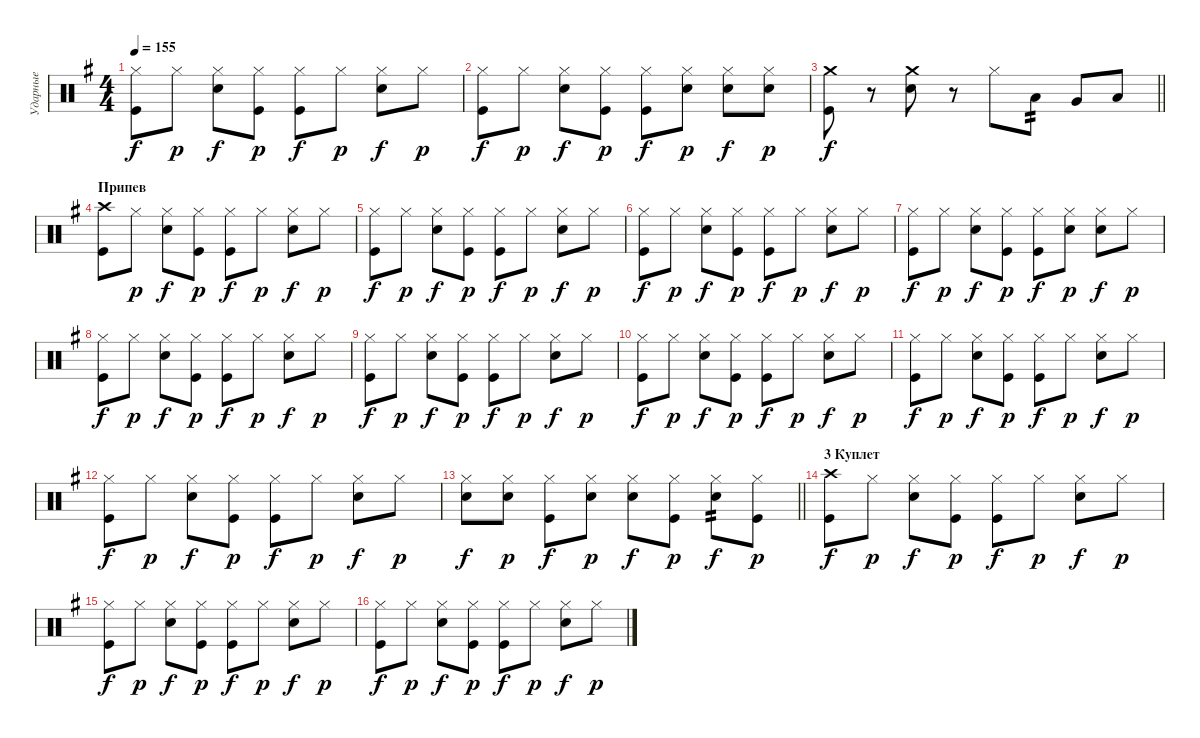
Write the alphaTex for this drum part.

\track ("Ударные" "Ударные") {instrument percussion}
\staff {score}
\articulation defaults
\ts (4 4)
\tempo 155
\clef neutral
\ks eminor
("Hi-Hat (closed)" "Kick (hit)").8{dy f} "Hi-Hat (closed)".8{dy p} ("Hi-Hat (closed)" "Snare (hit) 2").8{dy f} ("Hi-Hat (closed)" "Kick (hit)").8{dy p} ("Hi-Hat (closed)" "Kick (hit)").8{dy f} "Hi-Hat (closed)".8{dy p} ("Hi-Hat (closed)" "Snare (hit) 2").8{dy f} "Hi-Hat (closed)".8{dy p} |
("Hi-Hat (closed)" "Kick (hit)").8{dy f} "Hi-Hat (closed)".8{dy p} ("Hi-Hat (closed)" "Snare (hit) 2").8{dy f} ("Hi-Hat (closed)" "Kick (hit)").8{dy p} ("Hi-Hat (closed)" "Kick (hit)").8{dy f} ("Hi-Hat (closed)" "Snare (hit) 2").8{dy p} ("Hi-Hat (closed)" "Snare (hit) 2").8{dy f} ("Hi-Hat (closed)" "Snare (hit) 2").8{dy p} |
\barLineRight lightlight
("Crash medium (hit)" "Kick (hit)").8{dy f} r.8 ("Crash medium (hit)" "Snare (hit) 2").8 r.8 "Hi-Hat (closed)".8 "Low Tom (hit)".8{tp 2} "Very Low Tom (hit)".8 "Low Floor Tom (hit)".8 |
\section ("" "Припев")
("Crash high (hit)" "Kick (hit)").8 "Hi-Hat (closed)".8{dy p} ("Hi-Hat (closed)" "Snare (hit) 2").8{dy f} ("Hi-Hat (closed)" "Kick (hit)").8{dy p} ("Hi-Hat (closed)" "Kick (hit)").8{dy f} "Hi-Hat (closed)".8{dy p} ("Hi-Hat (closed)" "Snare (hit) 2").8{dy f} "Hi-Hat (closed)".8{dy p} |
("Hi-Hat (closed)" "Kick (hit)").8{dy f} "Hi-Hat (closed)".8{dy p} ("Hi-Hat (closed)" "Snare (hit) 2").8{dy f} ("Hi-Hat (closed)" "Kick (hit)").8{dy p} ("Hi-Hat (closed)" "Kick (hit)").8{dy f} "Hi-Hat (closed)".8{dy p} ("Hi-Hat (closed)" "Snare (hit) 2").8{dy f} "Hi-Hat (closed)".8{dy p} |
("Hi-Hat (closed)" "Kick (hit)").8{dy f} "Hi-Hat (closed)".8{dy p} ("Hi-Hat (closed)" "Snare (hit) 2").8{dy f} ("Hi-Hat (closed)" "Kick (hit)").8{dy p} ("Hi-Hat (closed)" "Kick (hit)").8{dy f} "Hi-Hat (closed)".8{dy p} ("Hi-Hat (closed)" "Snare (hit) 2").8{dy f} "Hi-Hat (closed)".8{dy p} |
("Hi-Hat (closed)" "Kick (hit)").8{dy f} "Hi-Hat (closed)".8{dy p} ("Hi-Hat (closed)" "Snare (hit) 2").8{dy f} ("Hi-Hat (closed)" "Kick (hit)").8{dy p} ("Hi-Hat (closed)" "Kick (hit)").8{dy f} ("Hi-Hat (closed)" "Snare (hit) 2").8{dy p} ("Hi-Hat (closed)" "Snare (hit) 2").8{dy f} "Hi-Hat (closed)".8{dy p} |
("Hi-Hat (closed)" "Kick (hit)").8{dy f} "Hi-Hat (closed)".8{dy p} ("Hi-Hat (closed)" "Snare (hit) 2").8{dy f} ("Hi-Hat (closed)" "Kick (hit)").8{dy p} ("Hi-Hat (closed)" "Kick (hit)").8{dy f} "Hi-Hat (closed)".8{dy p} ("Hi-Hat (closed)" "Snare (hit) 2").8{dy f} "Hi-Hat (closed)".8{dy p} |
("Hi-Hat (closed)" "Kick (hit)").8{dy f} "Hi-Hat (closed)".8{dy p} ("Hi-Hat (closed)" "Snare (hit) 2").8{dy f} ("Hi-Hat (closed)" "Kick (hit)").8{dy p} ("Hi-Hat (closed)" "Kick (hit)").8{dy f} "Hi-Hat (closed)".8{dy p} ("Hi-Hat (closed)" "Snare (hit) 2").8{dy f} "Hi-Hat (closed)".8{dy p} |
("Hi-Hat (closed)" "Kick (hit)").8{dy f} "Hi-Hat (closed)".8{dy p} ("Hi-Hat (closed)" "Snare (hit) 2").8{dy f} ("Hi-Hat (closed)" "Kick (hit)").8{dy p} ("Hi-Hat (closed)" "Kick (hit)").8{dy f} "Hi-Hat (closed)".8{dy p} ("Hi-Hat (closed)" "Snare (hit) 2").8{dy f} "Hi-Hat (closed)".8{dy p} |
("Hi-Hat (closed)" "Kick (hit)").8{dy f} "Hi-Hat (closed)".8{dy p} ("Hi-Hat (closed)" "Snare (hit) 2").8{dy f} ("Hi-Hat (closed)" "Kick (hit)").8{dy p} ("Hi-Hat (closed)" "Kick (hit)").8{dy f} "Hi-Hat (closed)".8{dy p} ("Hi-Hat (closed)" "Snare (hit) 2").8{dy f} "Hi-Hat (closed)".8{dy p} |
("Hi-Hat (closed)" "Kick (hit)").8{dy f} "Hi-Hat (closed)".8{dy p} ("Hi-Hat (closed)" "Snare (hit) 2").8{dy f} ("Hi-Hat (closed)" "Kick (hit)").8{dy p} ("Hi-Hat (closed)" "Kick (hit)").8{dy f} "Hi-Hat (closed)".8{dy p} ("Hi-Hat (closed)" "Snare (hit) 2").8{dy f} "Hi-Hat (closed)".8{dy p} |
\barLineRight lightlight
("Hi-Hat (closed)" "Snare (hit) 2").8{dy f} ("Hi-Hat (closed)" "Snare (hit) 2").8{dy p} ("Hi-Hat (closed)" "Kick (hit)").8{dy f} ("Hi-Hat (closed)" "Snare (hit) 2").8{dy p} ("Hi-Hat (closed)" "Snare (hit) 2").8{dy f} ("Hi-Hat (closed)" "Kick (hit)").8{dy p} ("Hi-Hat (closed)" "Snare (hit) 2").8{tp 2 dy f} ("Hi-Hat (closed)" "Kick (hit)").8{dy p} |
\section ("" "3 Куплет")
("Crash high (hit)" "Kick (hit)").8{dy f} "Hi-Hat (closed)".8{dy p} ("Hi-Hat (closed)" "Snare (hit) 2").8{dy f} ("Hi-Hat (closed)" "Kick (hit)").8{dy p} ("Hi-Hat (closed)" "Kick (hit)").8{dy f} "Hi-Hat (closed)".8{dy p} ("Hi-Hat (closed)" "Snare (hit) 2").8{dy f} "Hi-Hat (closed)".8{dy p} |
("Hi-Hat (closed)" "Kick (hit)").8{dy f} "Hi-Hat (closed)".8{dy p} ("Hi-Hat (closed)" "Snare (hit) 2").8{dy f} ("Hi-Hat (closed)" "Kick (hit)").8{dy p} ("Hi-Hat (closed)" "Kick (hit)").8{dy f} "Hi-Hat (closed)".8{dy p} ("Hi-Hat (closed)" "Snare (hit) 2").8{dy f} "Hi-Hat (closed)".8{dy p} |
("Hi-Hat (closed)" "Kick (hit)").8{dy f} "Hi-Hat (closed)".8{dy p} ("Hi-Hat (closed)" "Snare (hit) 2").8{dy f} ("Hi-Hat (closed)" "Kick (hit)").8{dy p} ("Hi-Hat (closed)" "Kick (hit)").8{dy f} "Hi-Hat (closed)".8{dy p} ("Hi-Hat (closed)" "Snare (hit) 2").8{dy f} "Hi-Hat (closed)".8{dy p}
